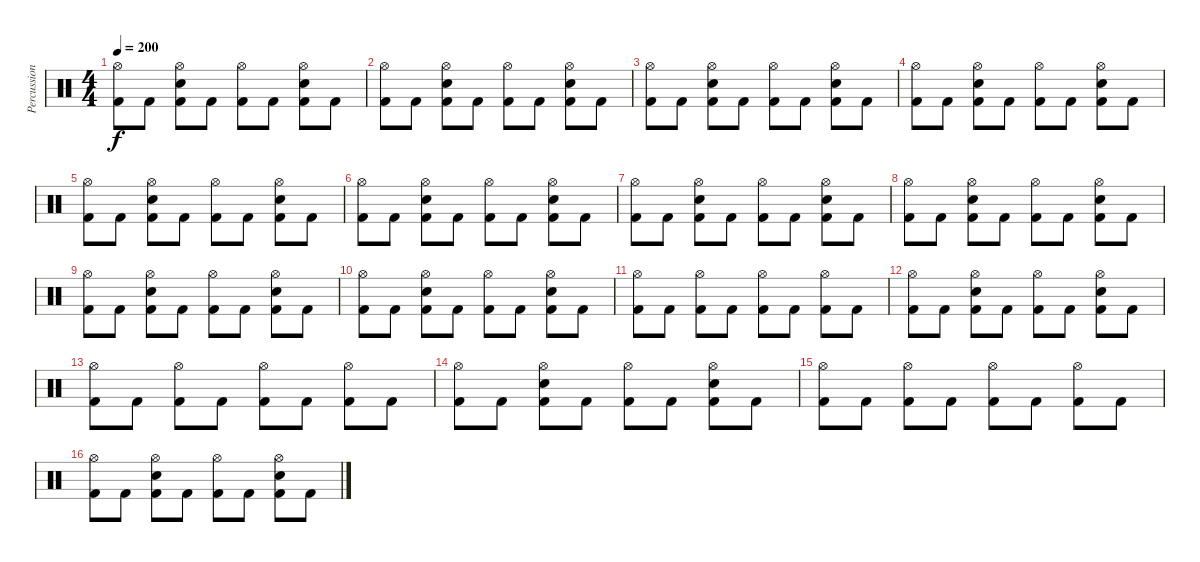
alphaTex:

\track ("Percussion" "Percussion") {instrument percussion}
\staff {score}
\articulation defaults
\ts (4 4)
\tempo 200
\clef neutral
\ks c
("Hi-Hat (open)" "Kick (hit) 2").8{dy f} "Kick (hit) 2".8 ("Hi-Hat (open)" "Electric Snare (hit)" "Kick (hit) 2").8 "Kick (hit) 2".8 ("Hi-Hat (open)" "Kick (hit) 2").8 "Kick (hit) 2".8 ("Hi-Hat (open)" "Electric Snare (hit)" "Kick (hit) 2").8 "Kick (hit) 2".8 |
("Hi-Hat (open)" "Kick (hit) 2").8 "Kick (hit) 2".8 ("Hi-Hat (open)" "Electric Snare (hit)" "Kick (hit) 2").8 "Kick (hit) 2".8 ("Hi-Hat (open)" "Kick (hit) 2").8 "Kick (hit) 2".8 ("Hi-Hat (open)" "Electric Snare (hit)" "Kick (hit) 2").8 "Kick (hit) 2".8 |
("Hi-Hat (open)" "Kick (hit) 2").8 "Kick (hit) 2".8 ("Hi-Hat (open)" "Electric Snare (hit)" "Kick (hit) 2").8 "Kick (hit) 2".8 ("Hi-Hat (open)" "Kick (hit) 2").8 "Kick (hit) 2".8 ("Hi-Hat (open)" "Electric Snare (hit)" "Kick (hit) 2").8 "Kick (hit) 2".8 |
("Hi-Hat (open)" "Kick (hit) 2").8 "Kick (hit) 2".8 ("Hi-Hat (open)" "Electric Snare (hit)" "Kick (hit) 2").8 "Kick (hit) 2".8 ("Hi-Hat (open)" "Kick (hit) 2").8 "Kick (hit) 2".8 ("Hi-Hat (open)" "Electric Snare (hit)" "Kick (hit) 2").8 "Kick (hit) 2".8 |
("Hi-Hat (open)" "Kick (hit) 2").8 "Kick (hit) 2".8 ("Hi-Hat (open)" "Electric Snare (hit)" "Kick (hit) 2").8 "Kick (hit) 2".8 ("Hi-Hat (open)" "Kick (hit) 2").8 "Kick (hit) 2".8 ("Hi-Hat (open)" "Electric Snare (hit)" "Kick (hit) 2").8 "Kick (hit) 2".8 |
("Hi-Hat (open)" "Kick (hit) 2").8 "Kick (hit) 2".8 ("Hi-Hat (open)" "Electric Snare (hit)" "Kick (hit) 2").8 "Kick (hit) 2".8 ("Hi-Hat (open)" "Kick (hit) 2").8 "Kick (hit) 2".8 ("Hi-Hat (open)" "Electric Snare (hit)" "Kick (hit) 2").8 "Kick (hit) 2".8 |
("Hi-Hat (open)" "Kick (hit) 2").8 "Kick (hit) 2".8 ("Hi-Hat (open)" "Electric Snare (hit)" "Kick (hit) 2").8 "Kick (hit) 2".8 ("Hi-Hat (open)" "Kick (hit) 2").8 "Kick (hit) 2".8 ("Hi-Hat (open)" "Electric Snare (hit)" "Kick (hit) 2").8 "Kick (hit) 2".8 |
("Hi-Hat (open)" "Kick (hit) 2").8 "Kick (hit) 2".8 ("Hi-Hat (open)" "Electric Snare (hit)" "Kick (hit) 2").8 "Kick (hit) 2".8 ("Hi-Hat (open)" "Kick (hit) 2").8 "Kick (hit) 2".8 ("Hi-Hat (open)" "Electric Snare (hit)" "Kick (hit) 2").8 "Kick (hit) 2".8 |
("Hi-Hat (open)" "Kick (hit) 2").8 "Kick (hit) 2".8 ("Hi-Hat (open)" "Electric Snare (hit)" "Kick (hit) 2").8 "Kick (hit) 2".8 ("Hi-Hat (open)" "Kick (hit) 2").8 "Kick (hit) 2".8 ("Hi-Hat (open)" "Electric Snare (hit)" "Kick (hit) 2").8 "Kick (hit) 2".8 |
("Hi-Hat (open)" "Kick (hit) 2").8 "Kick (hit) 2".8 ("Hi-Hat (open)" "Electric Snare (hit)" "Kick (hit) 2").8 "Kick (hit) 2".8 ("Hi-Hat (open)" "Kick (hit) 2").8 "Kick (hit) 2".8 ("Hi-Hat (open)" "Electric Snare (hit)" "Kick (hit) 2").8 "Kick (hit) 2".8 |
("Hi-Hat (open)" "Kick (hit) 2").8 "Kick (hit) 2".8 ("Hi-Hat (open)" "Kick (hit) 2").8 "Kick (hit) 2".8 ("Hi-Hat (open)" "Kick (hit) 2").8 "Kick (hit) 2".8 ("Hi-Hat (open)" "Kick (hit) 2").8 "Kick (hit) 2".8 |
("Hi-Hat (open)" "Kick (hit) 2").8 "Kick (hit) 2".8 ("Hi-Hat (open)" "Electric Snare (hit)" "Kick (hit) 2").8 "Kick (hit) 2".8 ("Hi-Hat (open)" "Kick (hit) 2").8 "Kick (hit) 2".8 ("Hi-Hat (open)" "Electric Snare (hit)" "Kick (hit) 2").8 "Kick (hit) 2".8 |
("Hi-Hat (open)" "Kick (hit) 2").8 "Kick (hit) 2".8 ("Hi-Hat (open)" "Kick (hit) 2").8 "Kick (hit) 2".8 ("Hi-Hat (open)" "Kick (hit) 2").8 "Kick (hit) 2".8 ("Hi-Hat (open)" "Kick (hit) 2").8 "Kick (hit) 2".8 |
("Hi-Hat (open)" "Kick (hit) 2").8 "Kick (hit) 2".8 ("Hi-Hat (open)" "Electric Snare (hit)" "Kick (hit) 2").8 "Kick (hit) 2".8 ("Hi-Hat (open)" "Kick (hit) 2").8 "Kick (hit) 2".8 ("Hi-Hat (open)" "Electric Snare (hit)" "Kick (hit) 2").8 "Kick (hit) 2".8 |
("Hi-Hat (open)" "Kick (hit) 2").8 "Kick (hit) 2".8 ("Hi-Hat (open)" "Kick (hit) 2").8 "Kick (hit) 2".8 ("Hi-Hat (open)" "Kick (hit) 2").8 "Kick (hit) 2".8 ("Hi-Hat (open)" "Kick (hit) 2").8 "Kick (hit) 2".8 |
("Hi-Hat (open)" "Kick (hit) 2").8 "Kick (hit) 2".8 ("Hi-Hat (open)" "Electric Snare (hit)" "Kick (hit) 2").8 "Kick (hit) 2".8 ("Hi-Hat (open)" "Kick (hit) 2").8 "Kick (hit) 2".8 ("Hi-Hat (open)" "Electric Snare (hit)" "Kick (hit) 2").8 "Kick (hit) 2".8
